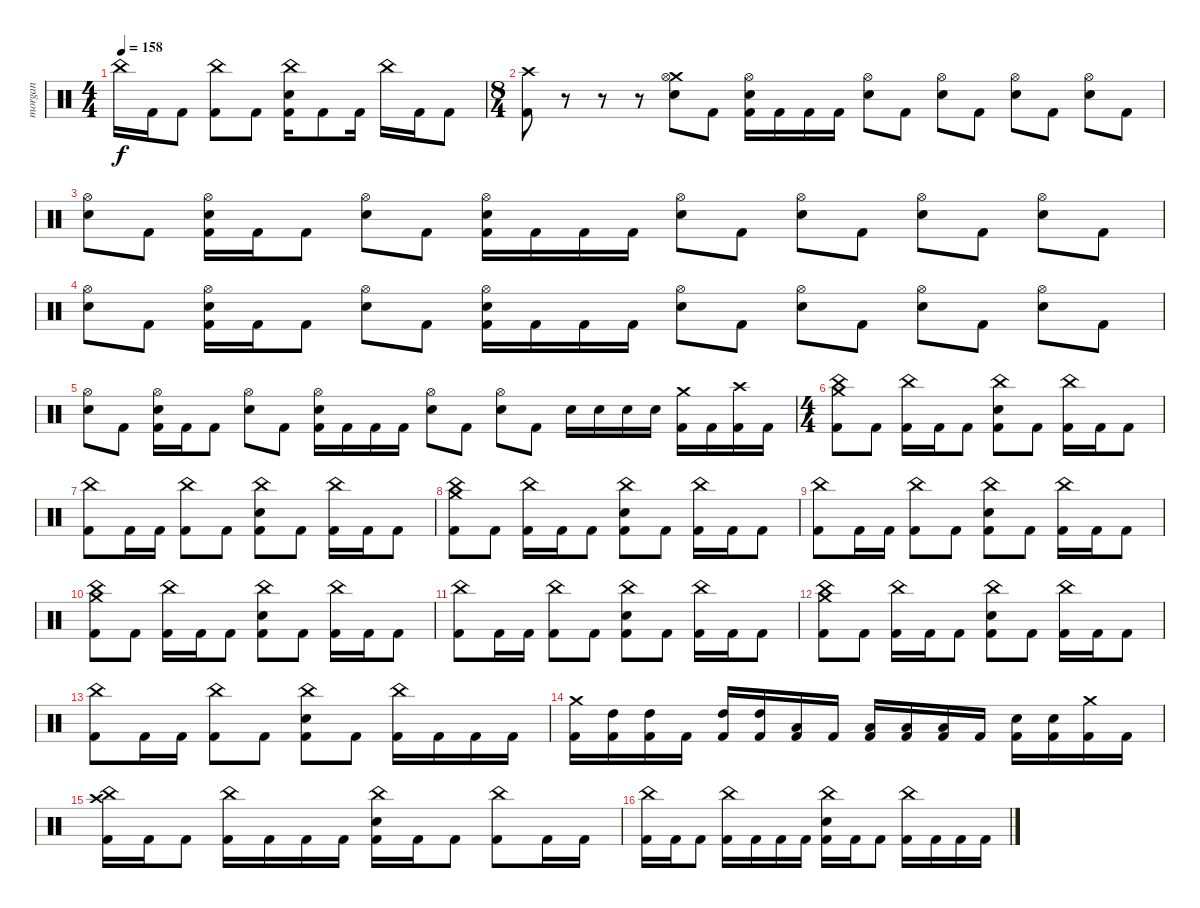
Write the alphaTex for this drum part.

\track ("morgan" "morgan") {instrument percussion}
\staff {score}
\articulation defaults
\ts (4 4)
\tempo 158
\clef neutral
\ks c "China (hit)".16{dy f} "Kick (hit) 2".16 "Kick (hit) 2".8
("China (hit)" "Kick (hit) 2").8 "Kick (hit) 2".8 ("China (hit)" "Electric Snare (hit)" "Kick (hit) 2").16 "Kick (hit) 2".8 "Kick (hit) 2".16 "China (hit)".16 "Kick (hit) 2".16 "Kick (hit) 2".8 |
\ts (8 4)
("Crash high (hit)" "Kick (hit) 2").8 r.8 r.8 r.8 ("Crash medium (hit)" "Hi-Hat (open)" "Electric Snare (hit)").8 "Kick (hit) 2".8 ("Hi-Hat (open)" "Electric Snare (hit)" "Kick (hit) 2").16 "Kick (hit) 2".16 "Kick (hit) 2".16 "Kick (hit) 2".16 ("Hi-Hat (open)" "Electric Snare (hit)").8 "Kick (hit) 2".8 ("Hi-Hat (open)" "Electric Snare (hit)").8 "Kick (hit) 2".8 ("Hi-Hat (open)" "Electric Snare (hit)").8 "Kick (hit) 2".8 ("Hi-Hat (open)" "Electric Snare (hit)").8 "Kick (hit) 2".8 |
("Hi-Hat (open)" "Electric Snare (hit)").8 "Kick (hit) 2".8 ("Hi-Hat (open)" "Electric Snare (hit)" "Kick (hit) 2").16 "Kick (hit) 2".16 "Kick (hit) 2".8 ("Hi-Hat (open)" "Electric Snare (hit)").8 "Kick (hit) 2".8 ("Hi-Hat (open)" "Electric Snare (hit)" "Kick (hit) 2").16 "Kick (hit) 2".16 "Kick (hit) 2".16 "Kick (hit) 2".16 ("Hi-Hat (open)" "Electric Snare (hit)").8 "Kick (hit) 2".8 ("Hi-Hat (open)" "Electric Snare (hit)").8 "Kick (hit) 2".8 ("Hi-Hat (open)" "Electric Snare (hit)").8 "Kick (hit) 2".8 ("Hi-Hat (open)" "Electric Snare (hit)").8 "Kick (hit) 2".8 |
("Hi-Hat (open)" "Electric Snare (hit)").8 "Kick (hit) 2".8 ("Hi-Hat (open)" "Electric Snare (hit)" "Kick (hit) 2").16 "Kick (hit) 2".16 "Kick (hit) 2".8 ("Hi-Hat (open)" "Electric Snare (hit)").8 "Kick (hit) 2".8 ("Hi-Hat (open)" "Electric Snare (hit)" "Kick (hit) 2").16 "Kick (hit) 2".16 "Kick (hit) 2".16 "Kick (hit) 2".16 ("Hi-Hat (open)" "Electric Snare (hit)").8 "Kick (hit) 2".8 ("Hi-Hat (open)" "Electric Snare (hit)").8 "Kick (hit) 2".8 ("Hi-Hat (open)" "Electric Snare (hit)").8 "Kick (hit) 2".8 ("Hi-Hat (open)" "Electric Snare (hit)").8 "Kick (hit) 2".8 |
("Hi-Hat (open)" "Electric Snare (hit)").8 "Kick (hit) 2".8 ("Hi-Hat (open)" "Electric Snare (hit)" "Kick (hit) 2").16 "Kick (hit) 2".16 "Kick (hit) 2".8 ("Hi-Hat (open)" "Electric Snare (hit)").8 "Kick (hit) 2".8 ("Hi-Hat (open)" "Electric Snare (hit)" "Kick (hit) 2").16 "Kick (hit) 2".16 "Kick (hit) 2".16 "Kick (hit) 2".16 ("Hi-Hat (open)" "Electric Snare (hit)").8 "Kick (hit) 2".8 ("Hi-Hat (open)" "Electric Snare (hit)").8 "Kick (hit) 2".8 "Electric Snare (hit)".16 "Electric Snare (hit)".16 "Electric Snare (hit)".16 "Electric Snare (hit)".16 ("Crash medium (hit)" "Kick (hit) 2").16 "Kick (hit) 2".16 ("Crash high (hit)" "Kick (hit) 2").16 "Kick (hit) 2".16 |
\ts (4 4)
("Crash medium (hit)" "China (hit)" "Kick (hit) 2").8 "Kick (hit) 2".8 ("China (hit)" "Kick (hit) 2").16 "Kick (hit) 2".16 "Kick (hit) 2".8 ("China (hit)" "Electric Snare (hit)" "Kick (hit) 2").8 "Kick (hit) 2".8 ("China (hit)" "Kick (hit) 2").16 "Kick (hit) 2".16 "Kick (hit) 2".8 |
("China (hit)" "Kick (hit) 2").8 "Kick (hit) 2".16 "Kick (hit) 2".16 ("China (hit)" "Kick (hit) 2").8 "Kick (hit) 2".8 ("China (hit)" "Electric Snare (hit)" "Kick (hit) 2").8 "Kick (hit) 2".8 ("China (hit)" "Kick (hit) 2").16 "Kick (hit) 2".16 "Kick (hit) 2".8 |
("Crash medium (hit)" "China (hit)" "Kick (hit) 2").8 "Kick (hit) 2".8 ("China (hit)" "Kick (hit) 2").16 "Kick (hit) 2".16 "Kick (hit) 2".8 ("China (hit)" "Electric Snare (hit)" "Kick (hit) 2").8 "Kick (hit) 2".8 ("China (hit)" "Kick (hit) 2").16 "Kick (hit) 2".16 "Kick (hit) 2".8 |
("China (hit)" "Kick (hit) 2").8 "Kick (hit) 2".16 "Kick (hit) 2".16 ("China (hit)" "Kick (hit) 2").8 "Kick (hit) 2".8 ("China (hit)" "Electric Snare (hit)" "Kick (hit) 2").8 "Kick (hit) 2".8 ("China (hit)" "Kick (hit) 2").16 "Kick (hit) 2".16 "Kick (hit) 2".8 |
("Crash medium (hit)" "China (hit)" "Kick (hit) 2").8 "Kick (hit) 2".8 ("China (hit)" "Kick (hit) 2").16 "Kick (hit) 2".16 "Kick (hit) 2".8 ("China (hit)" "Electric Snare (hit)" "Kick (hit) 2").8 "Kick (hit) 2".8 ("China (hit)" "Kick (hit) 2").16 "Kick (hit) 2".16 "Kick (hit) 2".8 |
("China (hit)" "Kick (hit) 2").8 "Kick (hit) 2".16 "Kick (hit) 2".16 ("China (hit)" "Kick (hit) 2").8 "Kick (hit) 2".8 ("China (hit)" "Electric Snare (hit)" "Kick (hit) 2").8 "Kick (hit) 2".8 ("China (hit)" "Kick (hit) 2").16 "Kick (hit) 2".16 "Kick (hit) 2".8 |
("Crash medium (hit)" "China (hit)" "Kick (hit) 2").8 "Kick (hit) 2".8 ("China (hit)" "Kick (hit) 2").16 "Kick (hit) 2".16 "Kick (hit) 2".8 ("China (hit)" "Electric Snare (hit)" "Kick (hit) 2").8 "Kick (hit) 2".8 ("China (hit)" "Kick (hit) 2").16 "Kick (hit) 2".16 "Kick (hit) 2".8 |
("China (hit)" "Kick (hit) 2").8 "Kick (hit) 2".16 "Kick (hit) 2".16 ("China (hit)" "Kick (hit) 2").8 "Kick (hit) 2".8 ("China (hit)" "Electric Snare (hit)" "Kick (hit) 2").8 "Kick (hit) 2".8 ("China (hit)" "Kick (hit) 2").16 "Kick (hit) 2".16 "Kick (hit) 2".16 "Kick (hit) 2".16 |
("Crash medium (hit)" "Kick (hit) 2").16 ("High Tom (hit)" "Kick (hit) 2").16 ("High Tom (hit)" "Kick (hit) 2").16 "Kick (hit) 2".16 ("High Tom (hit)" "Kick (hit) 2").16 ("High Tom (hit)" "Kick (hit) 2").16 ("Low Tom (hit)" "Kick (hit) 2").16 "Kick (hit) 2".16 ("Low Tom (hit)" "Kick (hit) 2").16 ("Low Tom (hit)" "Kick (hit) 2").16 ("Low Tom (hit)" "Kick (hit) 2").16 "Kick (hit) 2".16 ("Electric Snare (hit)" "Kick (hit) 2").16 ("Electric Snare (hit)" "Kick (hit) 2").16 ("Crash medium (hit)" "Kick (hit) 2").16 "Kick (hit) 2".16 |
("Crash high (hit)" "China (hit)" "Kick (hit) 2").16 "Kick (hit) 2".16 "Kick (hit) 2".8 ("China (hit)" "Kick (hit) 2").16 "Kick (hit) 2".16 "Kick (hit) 2".16 "Kick (hit) 2".16 ("China (hit)" "Electric Snare (hit)" "Kick (hit) 2").16 "Kick (hit) 2".16 "Kick (hit) 2".8 ("China (hit)" "Kick (hit) 2").8 "Kick (hit) 2".16 "Kick (hit) 2".16 |
("China (hit)" "Kick (hit) 2").16 "Kick (hit) 2".16 "Kick (hit) 2".8 ("China (hit)" "Kick (hit) 2").16 "Kick (hit) 2".16 "Kick (hit) 2".16 "Kick (hit) 2".16 ("China (hit)" "Electric Snare (hit)" "Kick (hit) 2").16 "Kick (hit) 2".16 "Kick (hit) 2".8 ("China (hit)" "Kick (hit) 2").16 "Kick (hit) 2".16 "Kick (hit) 2".16 "Kick (hit) 2".16
